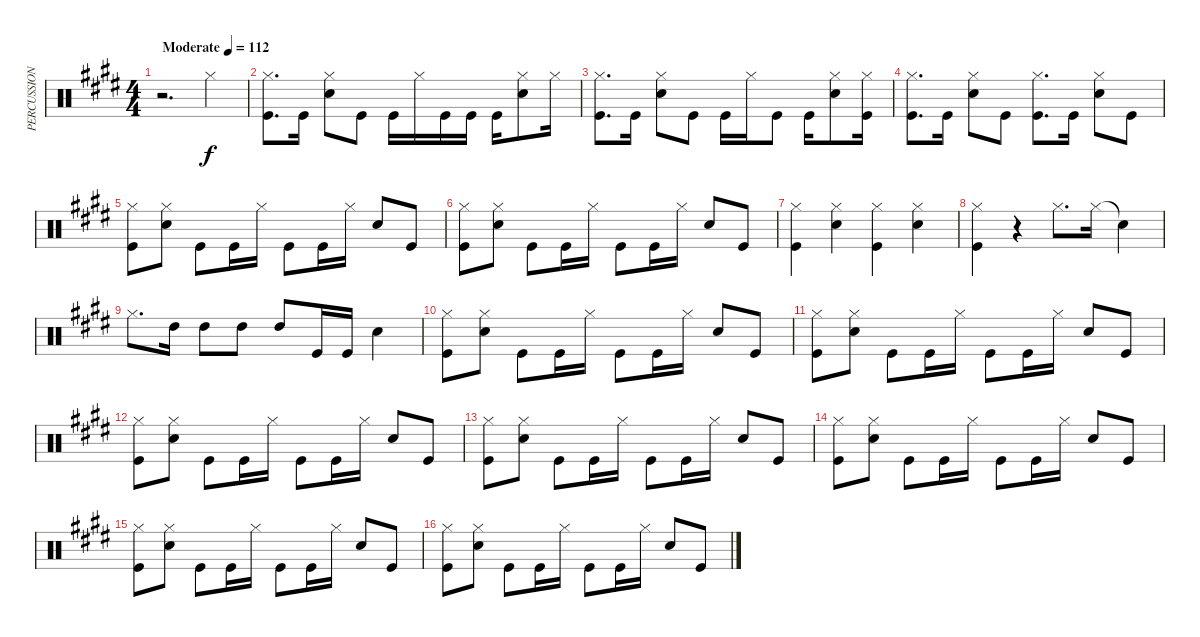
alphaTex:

\track ("PERCUSSION" "PERCUSSION") {instrument percussion}
\staff {score}
\articulation defaults
\ts (4 4)
\tempo (112 "Moderate")
\clef neutral
\ks c#minor
r.2{d dy f} "Hi-Hat (closed)".4 |
("Hi-Hat (closed)" "Kick (hit)").8{d} "Kick (hit)".16 ("Hi-Hat (closed)" "Snare (hit) 2").8 "Kick (hit)".8 "Kick (hit)".16 "Hi-Hat (closed)".16 "Kick (hit)".16 "Kick (hit)".16 "Kick (hit)".16 ("Hi-Hat (closed)" "Snare (hit) 2").8 "Hi-Hat (closed)".16 |
("Hi-Hat (closed)" "Kick (hit)").8{d} "Kick (hit)".16 ("Hi-Hat (closed)" "Snare (hit) 2").8 "Kick (hit)".8 "Kick (hit)".16 "Hi-Hat (closed)".16 "Kick (hit)".8 "Kick (hit)".16 ("Hi-Hat (closed)" "Snare (hit) 2").8 ("Hi-Hat (closed)" "Kick (hit)").16 |
("Hi-Hat (closed)" "Kick (hit)").8{d} "Kick (hit)".16 ("Hi-Hat (closed)" "Snare (hit) 2").8 "Kick (hit)".8 ("Hi-Hat (closed)" "Kick (hit)").8{d} "Kick (hit)".16 ("Hi-Hat (closed)" "Snare (hit) 2").8 "Kick (hit)".8 |
("Hi-Hat (closed)" "Kick (hit)").8 ("Hi-Hat (closed)" "Snare (hit) 2").8 "Kick (hit)".8 "Kick (hit)".16 "Hi-Hat (closed)".16 "Kick (hit)".8 "Kick (hit)".16 "Hi-Hat (closed)".16 "Snare (hit) 2".8 "Kick (hit)".8 |
("Hi-Hat (closed)" "Kick (hit)").8 ("Hi-Hat (closed)" "Snare (hit) 2").8 "Kick (hit)".8 "Kick (hit)".16 "Hi-Hat (closed)".16 "Kick (hit)".8 "Kick (hit)".16 "Hi-Hat (closed)".16 "Snare (hit) 2".8 "Kick (hit)".8 |
("Hi-Hat (closed)" "Kick (hit)").4 ("Hi-Hat (closed)" "Snare (hit) 2").4 ("Hi-Hat (closed)" "Kick (hit)").4 ("Hi-Hat (closed)" "Snare (hit) 2").4 |
("Hi-Hat (closed)" "Kick (hit)").4 r.4 "Hi-Hat (closed)".8{d} "Hi-Hat (closed)".16 "Snare (hit)"{t}.4 |
"Hi-Hat (closed)".8{d} "High Tom (hit)".16 "High Tom (hit)".8 "High Tom (hit)".8 "High Tom (hit)".8 "Kick (hit)".16 "Kick (hit)".16 "Snare (hit) 2".4 |
("Hi-Hat (closed)" "Kick (hit)").8 ("Hi-Hat (closed)" "Snare (hit) 2").8 "Kick (hit)".8 "Kick (hit)".16 "Hi-Hat (closed)".16 "Kick (hit)".8 "Kick (hit)".16 "Hi-Hat (closed)".16 "Snare (hit) 2".8 "Kick (hit)".8 |
("Hi-Hat (closed)" "Kick (hit)").8 ("Hi-Hat (closed)" "Snare (hit) 2").8 "Kick (hit)".8 "Kick (hit)".16 "Hi-Hat (closed)".16 "Kick (hit)".8 "Kick (hit)".16 "Hi-Hat (closed)".16 "Snare (hit) 2".8 "Kick (hit)".8 |
("Hi-Hat (closed)" "Kick (hit)").8 ("Hi-Hat (closed)" "Snare (hit) 2").8 "Kick (hit)".8 "Kick (hit)".16 "Hi-Hat (closed)".16 "Kick (hit)".8 "Kick (hit)".16 "Hi-Hat (closed)".16 "Snare (hit) 2".8 "Kick (hit)".8 |
("Hi-Hat (closed)" "Kick (hit)").8 ("Hi-Hat (closed)" "Snare (hit) 2").8 "Kick (hit)".8 "Kick (hit)".16 "Hi-Hat (closed)".16 "Kick (hit)".8 "Kick (hit)".16 "Hi-Hat (closed)".16 "Snare (hit) 2".8 "Kick (hit)".8 |
("Hi-Hat (closed)" "Kick (hit)").8 ("Hi-Hat (closed)" "Snare (hit) 2").8 "Kick (hit)".8 "Kick (hit)".16 "Hi-Hat (closed)".16 "Kick (hit)".8 "Kick (hit)".16 "Hi-Hat (closed)".16 "Snare (hit) 2".8 "Kick (hit)".8 |
("Hi-Hat (closed)" "Kick (hit)").8 ("Hi-Hat (closed)" "Snare (hit) 2").8 "Kick (hit)".8 "Kick (hit)".16 "Hi-Hat (closed)".16 "Kick (hit)".8 "Kick (hit)".16 "Hi-Hat (closed)".16 "Snare (hit) 2".8 "Kick (hit)".8 |
("Hi-Hat (closed)" "Kick (hit)").8 ("Hi-Hat (closed)" "Snare (hit) 2").8 "Kick (hit)".8 "Kick (hit)".16 "Hi-Hat (closed)".16 "Kick (hit)".8 "Kick (hit)".16 "Hi-Hat (closed)".16 "Snare (hit) 2".8 "Kick (hit)".8
